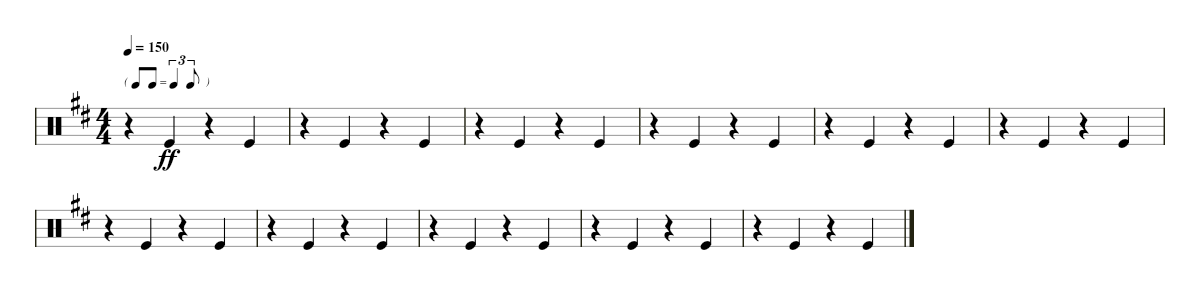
\bracketExtendMode nobrackets
\singleTrackTrackNamePolicy hidden
\multiTrackTrackNamePolicy hidden
\firstSystemTrackNameMode fullname
\firstSystemTrackNameOrientation horizontal
\otherSystemsTrackNameOrientation horizontal
\defaultBarNumberDisplay Hide
\track ("Hand Clap" "H-Clap") {instrument percussion}
\staff {score}
\articulation defaults
\ts (4 4)
\tf triplet8th
\tempo 150
\clef neutral
\ks d
r.4{dy ff} "Kick (hit)".4 r.4 "Kick (hit)".4 |
r.4 "Kick (hit)".4 r.4 "Kick (hit)".4 |
r.4 "Kick (hit)".4 r.4 "Kick (hit)".4 |
r.4 "Kick (hit)".4 r.4 "Kick (hit)".4 |
r.4 "Kick (hit)".4 r.4 "Kick (hit)".4 |
r.4 "Kick (hit)".4 r.4 "Kick (hit)".4 |
r.4 "Kick (hit)".4 r.4 "Kick (hit)".4 |
r.4 "Kick (hit)".4 r.4 "Kick (hit)".4 |
r.4 "Kick (hit)".4 r.4 "Kick (hit)".4 |
r.4 "Kick (hit)".4 r.4 "Kick (hit)".4 |
r.4 "Kick (hit)".4 r.4 "Kick (hit)".4
